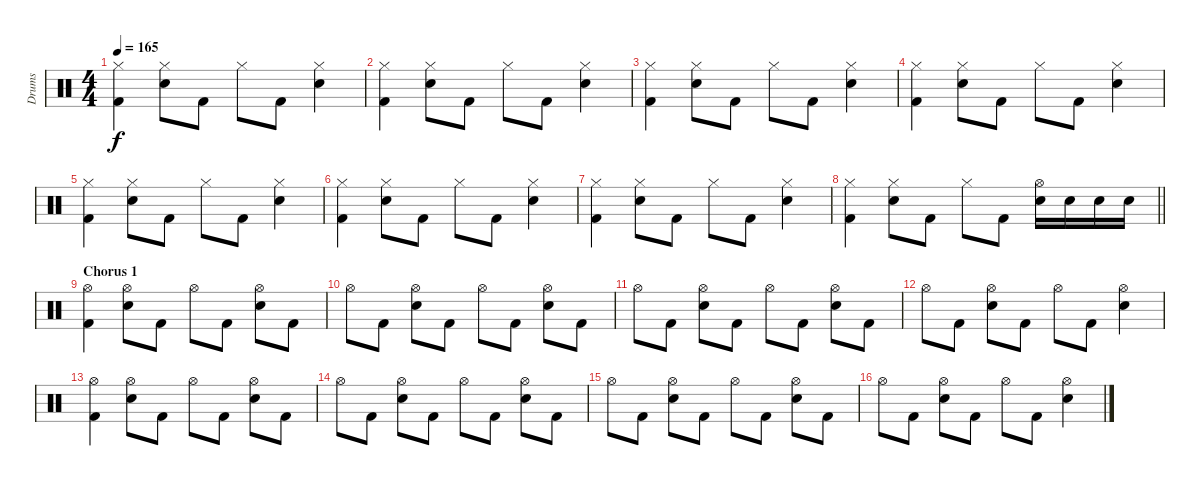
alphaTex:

\track ("Drums" "Drums") {instrument percussion}
\staff {score}
\articulation defaults
\ts (4 4)
\tempo 165
\clef neutral
\ks c
("Hi-Hat (closed)" "Kick (hit) 2").4{dy f} ("Hi-Hat (closed)" "Electric Snare (hit)").8 "Kick (hit) 2".8 "Hi-Hat (closed)".8 "Kick (hit) 2".8 ("Hi-Hat (closed)" "Electric Snare (hit)").4 |
("Hi-Hat (closed)" "Kick (hit) 2").4 ("Hi-Hat (closed)" "Electric Snare (hit)").8 "Kick (hit) 2".8 "Hi-Hat (closed)".8 "Kick (hit) 2".8 ("Hi-Hat (closed)" "Electric Snare (hit)").4 |
("Hi-Hat (closed)" "Kick (hit) 2").4 ("Hi-Hat (closed)" "Electric Snare (hit)").8 "Kick (hit) 2".8 "Hi-Hat (closed)".8 "Kick (hit) 2".8 ("Hi-Hat (closed)" "Electric Snare (hit)").4 |
("Hi-Hat (closed)" "Kick (hit) 2").4 ("Hi-Hat (closed)" "Electric Snare (hit)").8 "Kick (hit) 2".8 "Hi-Hat (closed)".8 "Kick (hit) 2".8 ("Hi-Hat (closed)" "Electric Snare (hit)").4 |
("Hi-Hat (closed)" "Kick (hit) 2").4 ("Hi-Hat (closed)" "Electric Snare (hit)").8 "Kick (hit) 2".8 "Hi-Hat (closed)".8 "Kick (hit) 2".8 ("Hi-Hat (closed)" "Electric Snare (hit)").4 |
("Hi-Hat (closed)" "Kick (hit) 2").4 ("Hi-Hat (closed)" "Electric Snare (hit)").8 "Kick (hit) 2".8 "Hi-Hat (closed)".8 "Kick (hit) 2".8 ("Hi-Hat (closed)" "Electric Snare (hit)").4 |
("Hi-Hat (closed)" "Kick (hit) 2").4 ("Hi-Hat (closed)" "Electric Snare (hit)").8 "Kick (hit) 2".8 "Hi-Hat (closed)".8 "Kick (hit) 2".8 ("Hi-Hat (closed)" "Electric Snare (hit)").4 |
\barLineRight lightlight
("Hi-Hat (closed)" "Kick (hit) 2").4 ("Hi-Hat (closed)" "Electric Snare (hit)").8 "Kick (hit) 2".8 "Hi-Hat (closed)".8 "Kick (hit) 2".8 ("Hi-Hat (open)" "Electric Snare (hit)").16 "Electric Snare (hit)".16 "Electric Snare (hit)".16 "Electric Snare (hit)".16 |
\section ("" "Chorus 1")
("Hi-Hat (open)" "Kick (hit) 2").4 ("Hi-Hat (open)" "Electric Snare (hit)").8 "Kick (hit) 2".8 "Hi-Hat (open)".8 "Kick (hit) 2".8 ("Hi-Hat (open)" "Electric Snare (hit)").8 "Kick (hit) 2".8 |
"Hi-Hat (open)".8 "Kick (hit) 2".8 ("Hi-Hat (open)" "Electric Snare (hit)").8 "Kick (hit) 2".8 "Hi-Hat (open)".8 "Kick (hit) 2".8 ("Hi-Hat (open)" "Electric Snare (hit)").8 "Kick (hit) 2".8 |
"Hi-Hat (open)".8 "Kick (hit) 2".8 ("Hi-Hat (open)" "Electric Snare (hit)").8 "Kick (hit) 2".8 "Hi-Hat (open)".8 "Kick (hit) 2".8 ("Hi-Hat (open)" "Electric Snare (hit)").8 "Kick (hit) 2".8 |
"Hi-Hat (open)".8 "Kick (hit) 2".8 ("Hi-Hat (open)" "Electric Snare (hit)").8 "Kick (hit) 2".8 "Hi-Hat (open)".8 "Kick (hit) 2".8 ("Hi-Hat (open)" "Electric Snare (hit)").4 |
("Hi-Hat (open)" "Kick (hit) 2").4 ("Hi-Hat (open)" "Electric Snare (hit)").8 "Kick (hit) 2".8 "Hi-Hat (open)".8 "Kick (hit) 2".8 ("Hi-Hat (open)" "Electric Snare (hit)").8 "Kick (hit) 2".8 |
"Hi-Hat (open)".8 "Kick (hit) 2".8 ("Hi-Hat (open)" "Electric Snare (hit)").8 "Kick (hit) 2".8 "Hi-Hat (open)".8 "Kick (hit) 2".8 ("Hi-Hat (open)" "Electric Snare (hit)").8 "Kick (hit) 2".8 |
"Hi-Hat (open)".8 "Kick (hit) 2".8 ("Hi-Hat (open)" "Electric Snare (hit)").8 "Kick (hit) 2".8 "Hi-Hat (open)".8 "Kick (hit) 2".8 ("Hi-Hat (open)" "Electric Snare (hit)").8 "Kick (hit) 2".8 |
"Hi-Hat (open)".8 "Kick (hit) 2".8 ("Hi-Hat (open)" "Electric Snare (hit)").8 "Kick (hit) 2".8 "Hi-Hat (open)".8 "Kick (hit) 2".8 ("Hi-Hat (open)" "Electric Snare (hit)").4
